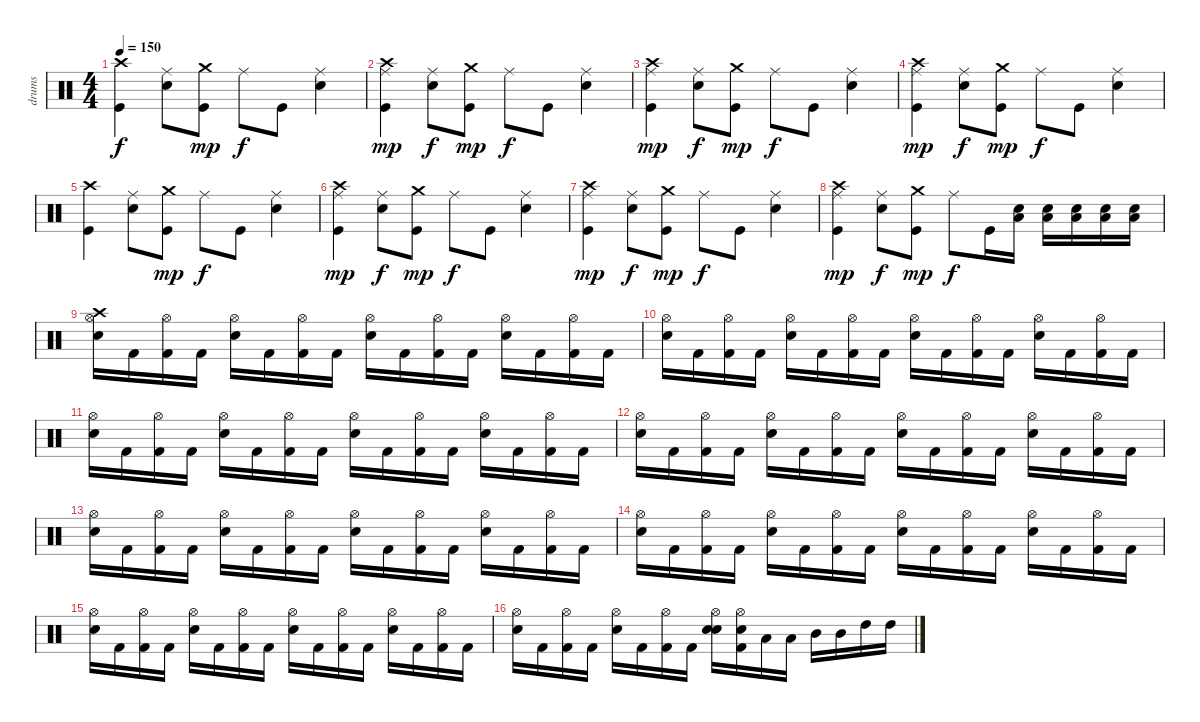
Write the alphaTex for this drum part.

\track ("drums" "drums") {instrument percussion}
\staff {score}
\articulation defaults
\ts (4 4)
\tempo 150
\clef neutral
\ks c
("Kick (hit)" "Crash high (hit)").4{dy f} ("Electric Snare (hit)" "Ride (middle)").8 ("Kick (hit)" "Crash medium (hit)").8{dy mp} "Ride (middle)".8{dy f} "Kick (hit)".8 ("Electric Snare (hit)" "Ride (middle)").4 |
("Kick (hit)" "Ride (middle)" "Crash high (hit)").4{dy mp} ("Electric Snare (hit)" "Ride (middle)").8{dy f} ("Kick (hit)" "Crash medium (hit)").8{dy mp} "Ride (middle)".8{dy f} "Kick (hit)".8 ("Electric Snare (hit)" "Ride (middle)").4 |
("Kick (hit)" "Ride (middle)" "Crash high (hit)").4{dy mp} ("Electric Snare (hit)" "Ride (middle)").8{dy f} ("Kick (hit)" "Crash medium (hit)").8{dy mp} "Ride (middle)".8{dy f} "Kick (hit)".8 ("Electric Snare (hit)" "Ride (middle)").4 |
("Kick (hit)" "Ride (middle)" "Crash high (hit)").4{dy mp} ("Electric Snare (hit)" "Ride (middle)").8{dy f} ("Kick (hit)" "Crash medium (hit)").8{dy mp} "Ride (middle)".8{dy f} "Kick (hit)".8 ("Electric Snare (hit)" "Ride (middle)").4 |
("Kick (hit)" "Crash high (hit)").4 ("Electric Snare (hit)" "Ride (middle)").8 ("Kick (hit)" "Crash medium (hit)").8{dy mp} "Ride (middle)".8{dy f} "Kick (hit)".8 ("Electric Snare (hit)" "Ride (middle)").4 |
("Kick (hit)" "Ride (middle)" "Crash high (hit)").4{dy mp} ("Electric Snare (hit)" "Ride (middle)").8{dy f} ("Kick (hit)" "Crash medium (hit)").8{dy mp} "Ride (middle)".8{dy f} "Kick (hit)".8 ("Electric Snare (hit)" "Ride (middle)").4 |
("Kick (hit)" "Ride (middle)" "Crash high (hit)").4{dy mp} ("Electric Snare (hit)" "Ride (middle)").8{dy f} ("Kick (hit)" "Crash medium (hit)").8{dy mp} "Ride (middle)".8{dy f} "Kick (hit)".8 ("Electric Snare (hit)" "Ride (middle)").4 |
("Kick (hit)" "Ride (middle)" "Crash high (hit)").4{dy mp} ("Electric Snare (hit)" "Ride (middle)").8{dy f} ("Kick (hit)" "Crash medium (hit)").8{dy mp} "Ride (middle)".8{dy f} "Kick (hit)".16 ("Electric Snare (hit)" "Low Floor Tom (hit)").16 ("Electric Snare (hit)" "Low Floor Tom (hit)").16 ("Electric Snare (hit)" "Low Floor Tom (hit)").16 ("Electric Snare (hit)" "Low Floor Tom (hit)").16 ("Electric Snare (hit)" "Low Floor Tom (hit)").16 |
("Crash high (hit)" "Hi-Hat (open)" "Electric Snare (hit)").16 "Kick (hit) 2".16 ("Hi-Hat (open)" "Kick (hit) 2").16 "Kick (hit) 2".16 ("Hi-Hat (open)" "Electric Snare (hit)").16 "Kick (hit) 2".16 ("Hi-Hat (open)" "Kick (hit) 2").16 "Kick (hit) 2".16 ("Hi-Hat (open)" "Electric Snare (hit)").16 "Kick (hit) 2".16 ("Hi-Hat (open)" "Kick (hit) 2").16 "Kick (hit) 2".16 ("Hi-Hat (open)" "Electric Snare (hit)").16 "Kick (hit) 2".16 ("Hi-Hat (open)" "Kick (hit) 2").16 "Kick (hit) 2".16 |
("Hi-Hat (open)" "Electric Snare (hit)").16 "Kick (hit) 2".16 ("Hi-Hat (open)" "Kick (hit) 2").16 "Kick (hit) 2".16 ("Hi-Hat (open)" "Electric Snare (hit)").16 "Kick (hit) 2".16 ("Hi-Hat (open)" "Kick (hit) 2").16 "Kick (hit) 2".16 ("Hi-Hat (open)" "Electric Snare (hit)").16 "Kick (hit) 2".16 ("Hi-Hat (open)" "Kick (hit) 2").16 "Kick (hit) 2".16 ("Hi-Hat (open)" "Electric Snare (hit)").16 "Kick (hit) 2".16 ("Hi-Hat (open)" "Kick (hit) 2").16 "Kick (hit) 2".16 |
("Hi-Hat (open)" "Electric Snare (hit)").16 "Kick (hit) 2".16 ("Hi-Hat (open)" "Kick (hit) 2").16 "Kick (hit) 2".16 ("Hi-Hat (open)" "Electric Snare (hit)").16 "Kick (hit) 2".16 ("Hi-Hat (open)" "Kick (hit) 2").16 "Kick (hit) 2".16 ("Hi-Hat (open)" "Electric Snare (hit)").16 "Kick (hit) 2".16 ("Hi-Hat (open)" "Kick (hit) 2").16 "Kick (hit) 2".16 ("Hi-Hat (open)" "Electric Snare (hit)").16 "Kick (hit) 2".16 ("Hi-Hat (open)" "Kick (hit) 2").16 "Kick (hit) 2".16 |
("Hi-Hat (open)" "Electric Snare (hit)").16 "Kick (hit) 2".16 ("Hi-Hat (open)" "Kick (hit) 2").16 "Kick (hit) 2".16 ("Hi-Hat (open)" "Electric Snare (hit)").16 "Kick (hit) 2".16 ("Hi-Hat (open)" "Kick (hit) 2").16 "Kick (hit) 2".16 ("Hi-Hat (open)" "Electric Snare (hit)").16 "Kick (hit) 2".16 ("Hi-Hat (open)" "Kick (hit) 2").16 "Kick (hit) 2".16 ("Hi-Hat (open)" "Electric Snare (hit)").16 "Kick (hit) 2".16 ("Hi-Hat (open)" "Kick (hit) 2").16 "Kick (hit) 2".16 |
("Hi-Hat (open)" "Electric Snare (hit)").16 "Kick (hit) 2".16 ("Hi-Hat (open)" "Kick (hit) 2").16 "Kick (hit) 2".16 ("Hi-Hat (open)" "Electric Snare (hit)").16 "Kick (hit) 2".16 ("Hi-Hat (open)" "Kick (hit) 2").16 "Kick (hit) 2".16 ("Hi-Hat (open)" "Electric Snare (hit)").16 "Kick (hit) 2".16 ("Hi-Hat (open)" "Kick (hit) 2").16 "Kick (hit) 2".16 ("Hi-Hat (open)" "Electric Snare (hit)").16 "Kick (hit) 2".16 ("Hi-Hat (open)" "Kick (hit) 2").16 "Kick (hit) 2".16 |
("Hi-Hat (open)" "Electric Snare (hit)").16 "Kick (hit) 2".16 ("Hi-Hat (open)" "Kick (hit) 2").16 "Kick (hit) 2".16 ("Hi-Hat (open)" "Electric Snare (hit)").16 "Kick (hit) 2".16 ("Hi-Hat (open)" "Kick (hit) 2").16 "Kick (hit) 2".16 ("Hi-Hat (open)" "Electric Snare (hit)").16 "Kick (hit) 2".16 ("Hi-Hat (open)" "Kick (hit) 2").16 "Kick (hit) 2".16 ("Hi-Hat (open)" "Electric Snare (hit)").16 "Kick (hit) 2".16 ("Hi-Hat (open)" "Kick (hit) 2").16 "Kick (hit) 2".16 |
("Hi-Hat (open)" "Electric Snare (hit)").16 "Kick (hit) 2".16 ("Hi-Hat (open)" "Kick (hit) 2").16 "Kick (hit) 2".16 ("Hi-Hat (open)" "Electric Snare (hit)").16 "Kick (hit) 2".16 ("Hi-Hat (open)" "Kick (hit) 2").16 "Kick (hit) 2".16 ("Hi-Hat (open)" "Electric Snare (hit)").16 "Kick (hit) 2".16 ("Hi-Hat (open)" "Kick (hit) 2").16 "Kick (hit) 2".16 ("Hi-Hat (open)" "Electric Snare (hit)").16 "Kick (hit) 2".16 ("Hi-Hat (open)" "Kick (hit) 2").16 "Kick (hit) 2".16 |
("Hi-Hat (open)" "Electric Snare (hit)").16 "Kick (hit) 2".16 ("Hi-Hat (open)" "Kick (hit) 2").16 "Kick (hit) 2".16 ("Hi-Hat (open)" "Electric Snare (hit)").16 "Kick (hit) 2".16 ("Hi-Hat (open)" "Kick (hit) 2").16 "Kick (hit) 2".16 ("Hi-Hat (open)" "Electric Snare (hit)" "Electric Snare (hit)").16 ("Hi-Hat (open)" "Electric Snare (hit)" "Kick (hit) 2").16 "Low Tom (hit)".16 "Low Tom (hit)".16 "Mid Tom (hit)".16 "Mid Tom (hit)".16 "High Tom (hit)".16 "High Tom (hit)".16
